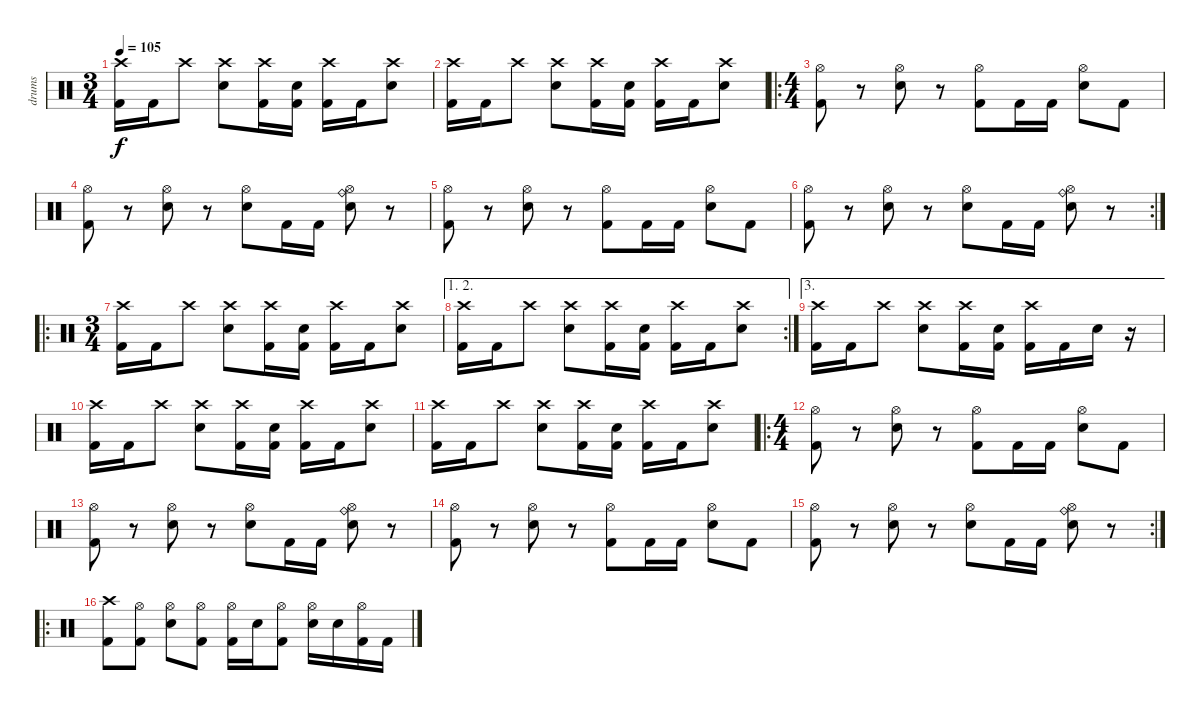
\track ("drums" "drums") {instrument percussion}
\staff {score}
\articulation defaults
\ts (3 4)
\tempo 105
\clef neutral
\ks c
("Crash high (hit)" "Kick (hit) 2").16{dy f} "Kick (hit) 2".16 "Crash high (hit)".8 ("Crash high (hit)" "Electric Snare (hit)").8 ("Crash high (hit)" "Kick (hit) 2").16 ("Electric Snare (hit)" "Kick (hit) 2").16 ("Crash high (hit)" "Kick (hit) 2").16 "Kick (hit) 2".16 ("Crash high (hit)" "Electric Snare (hit)").8 |
("Crash high (hit)" "Kick (hit) 2").16 "Kick (hit) 2".16 "Crash high (hit)".8 ("Crash high (hit)" "Electric Snare (hit)").8 ("Crash high (hit)" "Kick (hit) 2").16 ("Electric Snare (hit)" "Kick (hit) 2").16 ("Crash high (hit)" "Kick (hit) 2").16 "Kick (hit) 2".16 ("Crash high (hit)" "Electric Snare (hit)").8 |
\ro
\ts (4 4)
("Hi-Hat (open)" "Kick (hit) 2").8 r.8 ("Hi-Hat (open)" "Electric Snare (hit)").8 r.8 ("Hi-Hat (open)" "Kick (hit) 2").8 "Kick (hit) 2".16 "Kick (hit) 2".16 ("Hi-Hat (open)" "Electric Snare (hit)").8 "Kick (hit) 2".8 |
("Hi-Hat (open)" "Kick (hit) 2").8 r.8 ("Hi-Hat (open)" "Electric Snare (hit)").8 r.8 ("Hi-Hat (open)" "Electric Snare (hit)").8 "Kick (hit) 2".16 "Kick (hit) 2".16 ("Ride (bell)" "Hi-Hat (open)" "Electric Snare (hit)").8 r.8 |
("Hi-Hat (open)" "Kick (hit) 2").8 r.8 ("Hi-Hat (open)" "Electric Snare (hit)").8 r.8 ("Hi-Hat (open)" "Kick (hit) 2").8 "Kick (hit) 2".16 "Kick (hit) 2".16 ("Hi-Hat (open)" "Electric Snare (hit)").8 "Kick (hit) 2".8 |
\rc 2
("Hi-Hat (open)" "Kick (hit) 2").8 r.8 ("Hi-Hat (open)" "Electric Snare (hit)").8 r.8 ("Hi-Hat (open)" "Electric Snare (hit)").8 "Kick (hit) 2".16 "Kick (hit) 2".16 ("Ride (bell)" "Hi-Hat (open)" "Electric Snare (hit)").8 r.8 |
\ro
\ts (3 4)
("Crash high (hit)" "Kick (hit) 2").16 "Kick (hit) 2".16 "Crash high (hit)".8 ("Crash high (hit)" "Electric Snare (hit)").8 ("Crash high (hit)" "Kick (hit) 2").16 ("Electric Snare (hit)" "Kick (hit) 2").16 ("Crash high (hit)" "Kick (hit) 2").16 "Kick (hit) 2".16 ("Crash high (hit)" "Electric Snare (hit)").8 |
\ae (1 2)
\rc 2
("Crash high (hit)" "Kick (hit) 2").16 "Kick (hit) 2".16 "Crash high (hit)".8 ("Crash high (hit)" "Electric Snare (hit)").8 ("Crash high (hit)" "Kick (hit) 2").16 ("Electric Snare (hit)" "Kick (hit) 2").16 ("Crash high (hit)" "Kick (hit) 2").16 "Kick (hit) 2".16 ("Crash high (hit)" "Electric Snare (hit)").8 |
\ae 3
("Crash high (hit)" "Kick (hit) 2").16 "Kick (hit) 2".16 "Crash high (hit)".8 ("Crash high (hit)" "Electric Snare (hit)").8 ("Crash high (hit)" "Kick (hit) 2").16 ("Electric Snare (hit)" "Kick (hit) 2").16 ("Crash high (hit)" "Kick (hit) 2").16 "Kick (hit) 2".16 "Electric Snare (hit)".16 r.16 |
("Crash high (hit)" "Kick (hit) 2").16 "Kick (hit) 2".16 "Crash high (hit)".8 ("Crash high (hit)" "Electric Snare (hit)").8 ("Crash high (hit)" "Kick (hit) 2").16 ("Electric Snare (hit)" "Kick (hit) 2").16 ("Crash high (hit)" "Kick (hit) 2").16 "Kick (hit) 2".16 ("Crash high (hit)" "Electric Snare (hit)").8 |
("Crash high (hit)" "Kick (hit) 2").16 "Kick (hit) 2".16 "Crash high (hit)".8 ("Crash high (hit)" "Electric Snare (hit)").8 ("Crash high (hit)" "Kick (hit) 2").16 ("Electric Snare (hit)" "Kick (hit) 2").16 ("Crash high (hit)" "Kick (hit) 2").16 "Kick (hit) 2".16 ("Crash high (hit)" "Electric Snare (hit)").8 |
\ro
\ts (4 4)
("Hi-Hat (open)" "Kick (hit) 2").8 r.8 ("Hi-Hat (open)" "Electric Snare (hit)").8 r.8 ("Hi-Hat (open)" "Kick (hit) 2").8 "Kick (hit) 2".16 "Kick (hit) 2".16 ("Hi-Hat (open)" "Electric Snare (hit)").8 "Kick (hit) 2".8 |
("Hi-Hat (open)" "Kick (hit) 2").8 r.8 ("Hi-Hat (open)" "Electric Snare (hit)").8 r.8 ("Hi-Hat (open)" "Electric Snare (hit)").8 "Kick (hit) 2".16 "Kick (hit) 2".16 ("Ride (bell)" "Hi-Hat (open)" "Electric Snare (hit)").8 r.8 |
("Hi-Hat (open)" "Kick (hit) 2").8 r.8 ("Hi-Hat (open)" "Electric Snare (hit)").8 r.8 ("Hi-Hat (open)" "Kick (hit) 2").8 "Kick (hit) 2".16 "Kick (hit) 2".16 ("Hi-Hat (open)" "Electric Snare (hit)").8 "Kick (hit) 2".8 |
\rc 2
("Hi-Hat (open)" "Kick (hit) 2").8 r.8 ("Hi-Hat (open)" "Electric Snare (hit)").8 r.8 ("Hi-Hat (open)" "Electric Snare (hit)").8 "Kick (hit) 2".16 "Kick (hit) 2".16 ("Ride (bell)" "Hi-Hat (open)" "Electric Snare (hit)").8 r.8 |
\ro
("Crash high (hit)" "Kick (hit) 2").8 ("Hi-Hat (open)" "Kick (hit) 2").8 ("Hi-Hat (open)" "Electric Snare (hit)").8 ("Hi-Hat (open)" "Kick (hit) 2").8 ("Hi-Hat (open)" "Kick (hit) 2").16 "Electric Snare (hit)".16 ("Hi-Hat (open)" "Kick (hit) 2").8 ("Hi-Hat (open)" "Electric Snare (hit)").16 "Electric Snare (hit)".16 ("Hi-Hat (open)" "Kick (hit) 2").16 "Kick (hit) 2".16
